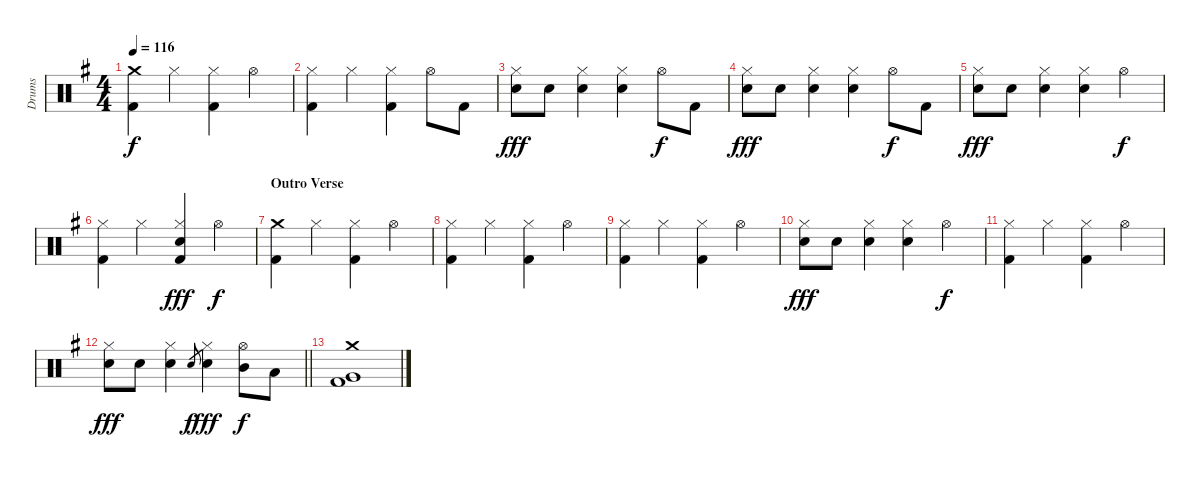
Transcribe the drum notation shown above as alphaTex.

\track ("Drums" "Drums") {instrument percussion}
\staff {score}
\articulation defaults
\ts (4 4)
\tempo 116
\clef neutral
\ks g
("Crash medium (hit)" "Kick (hit) 2").4{dy f} "Hi-Hat (closed)".4 ("Hi-Hat (closed)" "Kick (hit) 2").4 "Hi-Hat (open)".4 |
("Hi-Hat (closed)" "Kick (hit) 2").4 "Hi-Hat (closed)".4 ("Hi-Hat (closed)" "Kick (hit) 2").4 "Hi-Hat (open)".8 "Kick (hit) 2".8 |
("Hi-Hat (closed)" "Snare (hit) 2").8{dy fff} "Snare (hit) 2".8 ("Hi-Hat (closed)" "Snare (hit) 2").4 ("Hi-Hat (closed)" "Snare (hit) 2").4 "Hi-Hat (open)".8{dy f} "Kick (hit) 2".8 |
("Hi-Hat (closed)" "Snare (hit) 2").8{dy fff} "Snare (hit) 2".8 ("Hi-Hat (closed)" "Snare (hit) 2").4 ("Hi-Hat (closed)" "Snare (hit) 2").4 "Hi-Hat (open)".8{dy f} "Kick (hit) 2".8 |
("Hi-Hat (closed)" "Snare (hit) 2").8{dy fff} "Snare (hit) 2".8 ("Hi-Hat (closed)" "Snare (hit) 2").4 ("Hi-Hat (closed)" "Snare (hit) 2").4 "Hi-Hat (open)".4{dy f} |
("Hi-Hat (closed)" "Kick (hit) 2").4 "Hi-Hat (closed)".4 ("Hi-Hat (closed)" "Snare (hit) 2" "Kick (hit) 2").4{dy fff} "Hi-Hat (open)".4{dy f} |
\section ("" "Outro Verse")
("Crash medium (hit)" "Kick (hit) 2").4 "Hi-Hat (closed)".4 ("Hi-Hat (closed)" "Kick (hit) 2").4 "Hi-Hat (open)".4 |
("Hi-Hat (closed)" "Kick (hit) 2").4 "Hi-Hat (closed)".4 ("Hi-Hat (closed)" "Kick (hit) 2").4 "Hi-Hat (open)".4 |
("Hi-Hat (closed)" "Kick (hit) 2").4 "Hi-Hat (closed)".4 ("Hi-Hat (closed)" "Kick (hit) 2").4 "Hi-Hat (open)".4 |
("Hi-Hat (closed)" "Snare (hit) 2").8{dy fff} "Snare (hit) 2".8 ("Hi-Hat (closed)" "Snare (hit) 2").4 ("Hi-Hat (closed)" "Snare (hit) 2").4 "Hi-Hat (open)".4{dy f} |
("Hi-Hat (closed)" "Kick (hit) 2").4 "Hi-Hat (closed)".4 ("Hi-Hat (closed)" "Kick (hit) 2").4 "Hi-Hat (open)".4 |
\barLineRight lightlight
("Hi-Hat (closed)" "Snare (hit) 2").8{dy fff} "Snare (hit) 2".8 ("Hi-Hat (closed)" "Snare (hit) 2").4 "Snare (hit) 2".8{gr dy f} ("Hi-Hat (closed)" "Snare (hit) 2").4{dy fff} ("Hi-Hat (open)" "Mid Tom (hit)").8{dy f} "Low Tom (hit)".8 |
("Crash medium (hit)" "Very Low Tom (hit)" "Kick (hit) 2").1
